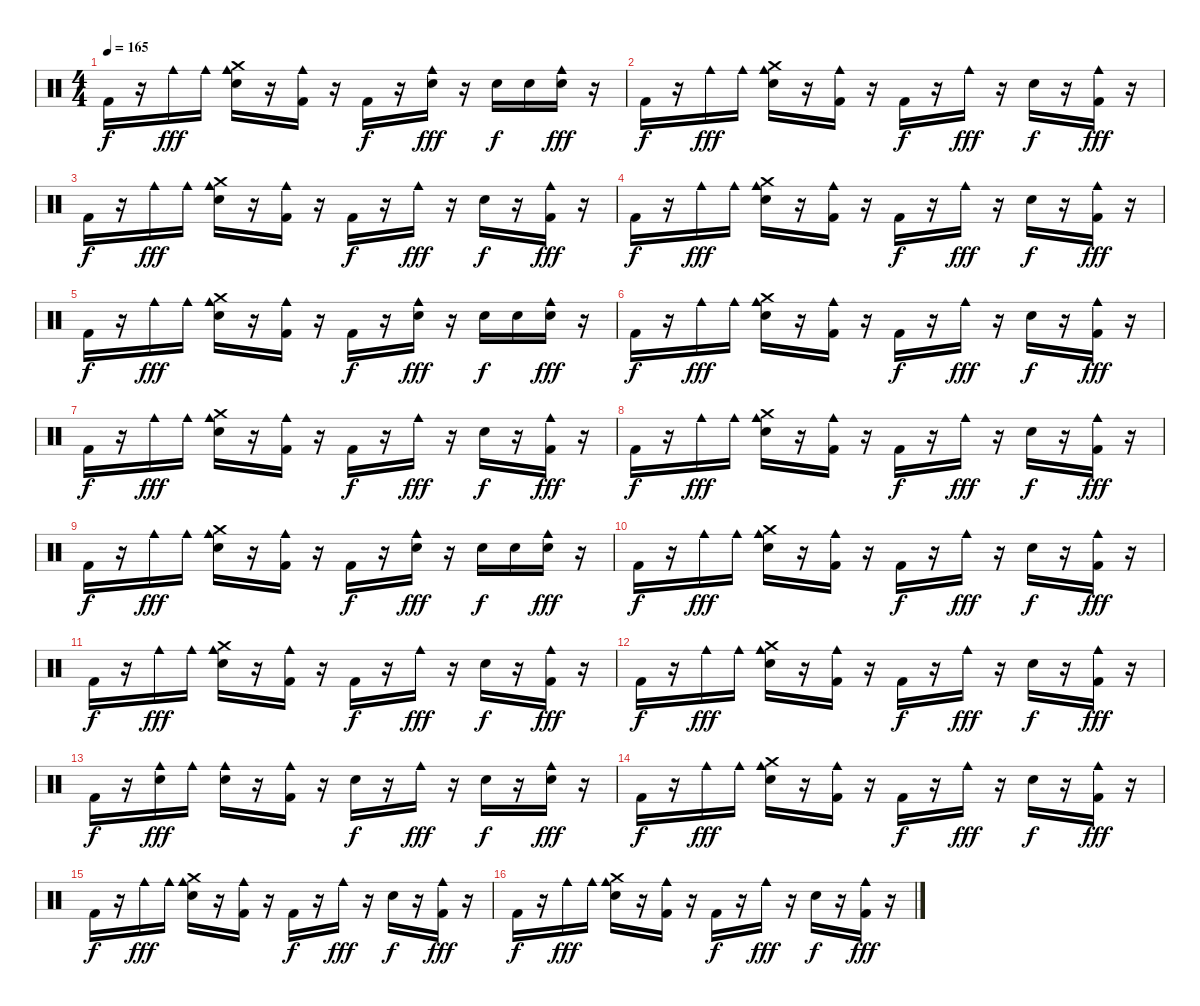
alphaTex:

\track "" {instrument percussion}
\staff {score}
\articulation defaults
\ts (4 4)
\tempo 165
\clef neutral
\ks c "Kick (hit) 2".16{dy f}
r.16 "Cowbell medium (hit)".16{dy fff} "Cowbell medium (hit)".16 ("Crash medium (hit)" "Snare (hit) 2" "Cowbell medium (hit)").16 r.16 ("Kick (hit) 2" "Cowbell medium (hit)").16 r.16 "Kick (hit) 2".16{dy f} r.16 ("Snare (hit) 2" "Cowbell medium (hit)").16{dy fff} r.16 "Snare (hit) 2".16{dy f} "Snare (hit) 2".16 ("Snare (hit) 2" "Cowbell medium (hit)").16{dy fff} r.16 |
"Kick (hit) 2".16{dy f} r.16 "Cowbell medium (hit)".16{dy fff} "Cowbell medium (hit)".16 ("Crash medium (hit)" "Snare (hit) 2" "Cowbell medium (hit)").16 r.16 ("Kick (hit) 2" "Cowbell medium (hit)").16 r.16 "Kick (hit) 2".16{dy f} r.16 "Cowbell medium (hit)".16{dy fff} r.16 "Snare (hit) 2".16{dy f} r.16 ("Kick (hit) 2" "Cowbell medium (hit)").16{dy fff} r.16 |
"Kick (hit) 2".16{dy f} r.16 "Cowbell medium (hit)".16{dy fff} "Cowbell medium (hit)".16 ("Crash medium (hit)" "Snare (hit) 2" "Cowbell medium (hit)").16 r.16 ("Kick (hit) 2" "Cowbell medium (hit)").16 r.16 "Kick (hit) 2".16{dy f} r.16 "Cowbell medium (hit)".16{dy fff} r.16 "Snare (hit) 2".16{dy f} r.16 ("Kick (hit) 2" "Cowbell medium (hit)").16{dy fff} r.16 |
"Kick (hit) 2".16{dy f} r.16 "Cowbell medium (hit)".16{dy fff} "Cowbell medium (hit)".16 ("Crash medium (hit)" "Snare (hit) 2" "Cowbell medium (hit)").16 r.16 ("Kick (hit) 2" "Cowbell medium (hit)").16 r.16 "Kick (hit) 2".16{dy f} r.16 "Cowbell medium (hit)".16{dy fff} r.16 "Snare (hit) 2".16{dy f} r.16 ("Kick (hit) 2" "Cowbell medium (hit)").16{dy fff} r.16 |
"Kick (hit) 2".16{dy f} r.16 "Cowbell medium (hit)".16{dy fff} "Cowbell medium (hit)".16 ("Crash medium (hit)" "Snare (hit) 2" "Cowbell medium (hit)").16 r.16 ("Kick (hit) 2" "Cowbell medium (hit)").16 r.16 "Kick (hit) 2".16{dy f} r.16 ("Snare (hit) 2" "Cowbell medium (hit)").16{dy fff} r.16 "Snare (hit) 2".16{dy f} "Snare (hit) 2".16 ("Snare (hit) 2" "Cowbell medium (hit)").16{dy fff} r.16 |
"Kick (hit) 2".16{dy f} r.16 "Cowbell medium (hit)".16{dy fff} "Cowbell medium (hit)".16 ("Crash medium (hit)" "Snare (hit) 2" "Cowbell medium (hit)").16 r.16 ("Kick (hit) 2" "Cowbell medium (hit)").16 r.16 "Kick (hit) 2".16{dy f} r.16 "Cowbell medium (hit)".16{dy fff} r.16 "Snare (hit) 2".16{dy f} r.16 ("Kick (hit) 2" "Cowbell medium (hit)").16{dy fff} r.16 |
"Kick (hit) 2".16{dy f} r.16 "Cowbell medium (hit)".16{dy fff} "Cowbell medium (hit)".16 ("Crash medium (hit)" "Snare (hit) 2" "Cowbell medium (hit)").16 r.16 ("Kick (hit) 2" "Cowbell medium (hit)").16 r.16 "Kick (hit) 2".16{dy f} r.16 "Cowbell medium (hit)".16{dy fff} r.16 "Snare (hit) 2".16{dy f} r.16 ("Kick (hit) 2" "Cowbell medium (hit)").16{dy fff} r.16 |
"Kick (hit) 2".16{dy f} r.16 "Cowbell medium (hit)".16{dy fff} "Cowbell medium (hit)".16 ("Crash medium (hit)" "Snare (hit) 2" "Cowbell medium (hit)").16 r.16 ("Kick (hit) 2" "Cowbell medium (hit)").16 r.16 "Kick (hit) 2".16{dy f} r.16 "Cowbell medium (hit)".16{dy fff} r.16 "Snare (hit) 2".16{dy f} r.16 ("Kick (hit) 2" "Cowbell medium (hit)").16{dy fff} r.16 |
"Kick (hit) 2".16{dy f} r.16 "Cowbell medium (hit)".16{dy fff} "Cowbell medium (hit)".16 ("Crash medium (hit)" "Snare (hit) 2" "Cowbell medium (hit)").16 r.16 ("Kick (hit) 2" "Cowbell medium (hit)").16 r.16 "Kick (hit) 2".16{dy f} r.16 ("Snare (hit) 2" "Cowbell medium (hit)").16{dy fff} r.16 "Snare (hit) 2".16{dy f} "Snare (hit) 2".16 ("Snare (hit) 2" "Cowbell medium (hit)").16{dy fff} r.16 |
"Kick (hit) 2".16{dy f} r.16 "Cowbell medium (hit)".16{dy fff} "Cowbell medium (hit)".16 ("Crash medium (hit)" "Snare (hit) 2" "Cowbell medium (hit)").16 r.16 ("Kick (hit) 2" "Cowbell medium (hit)").16 r.16 "Kick (hit) 2".16{dy f} r.16 "Cowbell medium (hit)".16{dy fff} r.16 "Snare (hit) 2".16{dy f} r.16 ("Kick (hit) 2" "Cowbell medium (hit)").16{dy fff} r.16 |
"Kick (hit) 2".16{dy f} r.16 "Cowbell medium (hit)".16{dy fff} "Cowbell medium (hit)".16 ("Crash medium (hit)" "Snare (hit) 2" "Cowbell medium (hit)").16 r.16 ("Kick (hit) 2" "Cowbell medium (hit)").16 r.16 "Kick (hit) 2".16{dy f} r.16 "Cowbell medium (hit)".16{dy fff} r.16 "Snare (hit) 2".16{dy f} r.16 ("Kick (hit) 2" "Cowbell medium (hit)").16{dy fff} r.16 |
"Kick (hit) 2".16{dy f} r.16 "Cowbell medium (hit)".16{dy fff} "Cowbell medium (hit)".16 ("Crash medium (hit)" "Snare (hit) 2" "Cowbell medium (hit)").16 r.16 ("Kick (hit) 2" "Cowbell medium (hit)").16 r.16 "Kick (hit) 2".16{dy f} r.16 "Cowbell medium (hit)".16{dy fff} r.16 "Snare (hit) 2".16{dy f} r.16 ("Kick (hit) 2" "Cowbell medium (hit)").16{dy fff} r.16 |
"Kick (hit) 2".16{dy f} r.16 ("Snare (hit) 2" "Cowbell medium (hit)").16{dy fff} "Cowbell medium (hit)".16 ("Snare (hit) 2" "Cowbell medium (hit)").16 r.16 ("Kick (hit) 2" "Cowbell medium (hit)").16 r.16 "Snare (hit) 2".16{dy f} r.16 "Cowbell medium (hit)".16{dy fff} r.16 "Snare (hit) 2".16{dy f} r.16 ("Snare (hit) 2" "Cowbell medium (hit)").16{dy fff} r.16 |
"Kick (hit) 2".16{dy f} r.16 "Cowbell medium (hit)".16{dy fff} "Cowbell medium (hit)".16 ("Crash medium (hit)" "Snare (hit) 2" "Cowbell medium (hit)").16 r.16 ("Kick (hit) 2" "Cowbell medium (hit)").16 r.16 "Kick (hit) 2".16{dy f} r.16 "Cowbell medium (hit)".16{dy fff} r.16 "Snare (hit) 2".16{dy f} r.16 ("Kick (hit) 2" "Cowbell medium (hit)").16{dy fff} r.16 |
"Kick (hit) 2".16{dy f} r.16 "Cowbell medium (hit)".16{dy fff} "Cowbell medium (hit)".16 ("Crash medium (hit)" "Snare (hit) 2" "Cowbell medium (hit)").16 r.16 ("Kick (hit) 2" "Cowbell medium (hit)").16 r.16 "Kick (hit) 2".16{dy f} r.16 "Cowbell medium (hit)".16{dy fff} r.16 "Snare (hit) 2".16{dy f} r.16 ("Kick (hit) 2" "Cowbell medium (hit)").16{dy fff} r.16 |
"Kick (hit) 2".16{dy f} r.16 "Cowbell medium (hit)".16{dy fff} "Cowbell medium (hit)".16 ("Crash medium (hit)" "Snare (hit) 2" "Cowbell medium (hit)").16 r.16 ("Kick (hit) 2" "Cowbell medium (hit)").16 r.16 "Kick (hit) 2".16{dy f} r.16 "Cowbell medium (hit)".16{dy fff} r.16 "Snare (hit) 2".16{dy f} r.16 ("Kick (hit) 2" "Cowbell medium (hit)").16{dy fff} r.16
